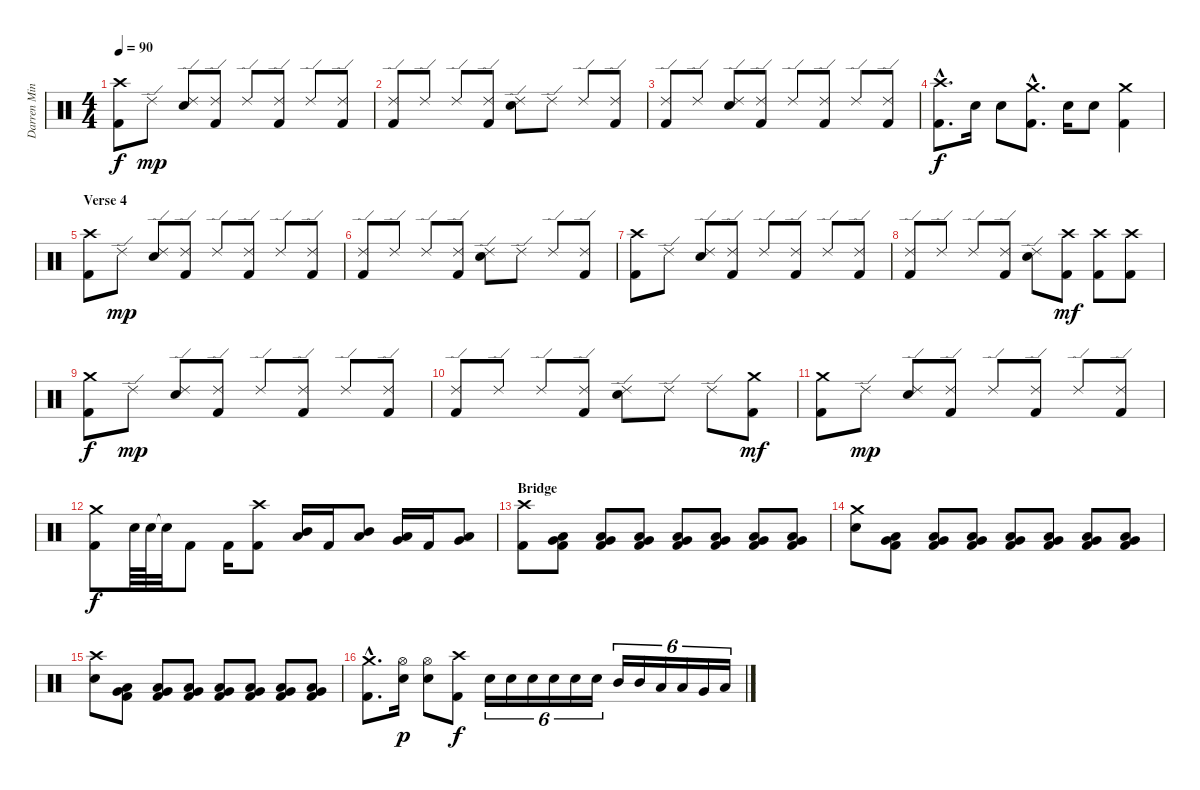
\track ("Darren Minter" "Darren Min") {instrument percussion}
\staff {score}
\articulation defaults
\ts (4 4)
\tempo 90
\clef neutral
\ks c
("Kick (hit) 2" "Crash high (hit)").8{dy f} "Ride (edge) 2".8{dy mp} ("Ride (edge) 2" "Snare (hit) 2").8 ("Kick (hit) 2" "Ride (edge) 2").8 "Ride (edge) 2".8 ("Kick (hit) 2" "Ride (edge) 2").8 "Ride (edge) 2".8 ("Kick (hit) 2" "Ride (edge) 2").8 |
("Kick (hit) 2" "Ride (edge) 2").8 "Ride (edge) 2".8 "Ride (edge) 2".8 ("Kick (hit) 2" "Ride (edge) 2").8 ("Ride (edge) 2" "Snare (hit) 2").8 "Ride (edge) 2".8 "Ride (edge) 2".8 ("Kick (hit) 2" "Ride (edge) 2").8 |
("Kick (hit) 2" "Ride (edge) 2").8 "Ride (edge) 2".8 ("Ride (edge) 2" "Snare (hit) 2").8 ("Kick (hit) 2" "Ride (edge) 2").8 "Ride (edge) 2".8 ("Kick (hit) 2" "Ride (edge) 2").8 "Ride (edge) 2".8 ("Kick (hit) 2" "Ride (edge) 2").8 |
("Kick (hit) 2"{hac} "Crash high (hit)"{hac}).8{d dy f} "Snare (hit) 2".16 "Snare (hit) 2".8 ("Kick (hit) 2"{hac} "Crash medium (hit)"{hac}).8{d} "Snare (hit) 2".16 "Snare (hit) 2".8 ("Kick (hit) 2" "Crash medium (hit)").4 |
\section ("" "Verse 4")
("Kick (hit) 2" "Crash high (hit)").8 "Ride (edge) 2".8{dy mp} ("Ride (edge) 2" "Snare (hit) 2").8 ("Kick (hit) 2" "Ride (edge) 2").8 "Ride (edge) 2".8 ("Kick (hit) 2" "Ride (edge) 2").8 "Ride (edge) 2".8 ("Kick (hit) 2" "Ride (edge) 2").8 |
("Kick (hit) 2" "Ride (edge) 2").8 "Ride (edge) 2".8 "Ride (edge) 2".8 ("Kick (hit) 2" "Ride (edge) 2").8 ("Ride (edge) 2" "Snare (hit) 2").8 "Ride (edge) 2".8 "Ride (edge) 2".8 ("Kick (hit) 2" "Ride (edge) 2").8 |
("Kick (hit) 2" "Crash high (hit)").8 "Ride (edge) 2".8 ("Ride (edge) 2" "Snare (hit) 2").8 ("Kick (hit) 2" "Ride (edge) 2").8 "Ride (edge) 2".8 ("Kick (hit) 2" "Ride (edge) 2").8 "Ride (edge) 2".8 ("Kick (hit) 2" "Ride (edge) 2").8 |
("Kick (hit) 2" "Ride (edge) 2").8 "Ride (edge) 2".8 "Ride (edge) 2".8 ("Kick (hit) 2" "Ride (edge) 2").8 ("Ride (edge) 2" "Snare (hit) 2").8 ("Kick (hit) 2" "Crash high (hit)").8{dy mf} ("Kick (hit) 2" "Crash high (hit)").8 ("Kick (hit) 2" "Crash high (hit)").8 |
("Kick (hit) 2" "Crash medium (hit)").8{dy f} "Ride (edge) 2".8{dy mp} ("Ride (edge) 2" "Snare (hit) 2").8 ("Kick (hit) 2" "Ride (edge) 2").8 "Ride (edge) 2".8 ("Kick (hit) 2" "Ride (edge) 2").8 "Ride (edge) 2".8 ("Kick (hit) 2" "Ride (edge) 2").8 |
("Kick (hit) 2" "Ride (edge) 2").8 "Ride (edge) 2".8 "Ride (edge) 2".8 ("Kick (hit) 2" "Ride (edge) 2").8 ("Ride (edge) 2" "Snare (hit) 2").8 "Ride (edge) 2".8 "Ride (edge) 2".8 ("Kick (hit) 2" "Crash medium (hit)").8{dy mf} |
("Kick (hit) 2" "Crash medium (hit)").8 "Ride (edge) 2".8{dy mp} ("Ride (edge) 2" "Snare (hit) 2").8 ("Kick (hit) 2" "Ride (edge) 2").8 "Ride (edge) 2".8 ("Kick (hit) 2" "Ride (edge) 2").8 "Ride (edge) 2".8 ("Kick (hit) 2" "Ride (edge) 2").8 |
("Kick (hit) 2" "Crash medium (hit)").8{dy f} "Snare (hit) 2".64 "Snare (hit) 2".64 "Snare (hit)"{t}.32 "Kick (hit) 2".8 "Kick (hit) 2".16 ("Kick (hit) 2" "Crash high (hit)").8 ("Mid Tom (hit)" "Low Tom (hit)").16 "Kick (hit) 2".16 ("Mid Tom (hit)" "Low Tom (hit)").8 ("Low Tom (hit)" "Very Low Tom (hit)").16 "Kick (hit) 2".16 ("Low Tom (hit)" "Very Low Tom (hit)").8 |
\section ("" "Bridge")
("Kick (hit) 2" "Crash high (hit)").8 ("Kick (hit) 2" "Low Tom (hit)" "Very Low Tom (hit)").8 ("Kick (hit) 2" "Low Tom (hit)" "Very Low Tom (hit)").8 ("Kick (hit) 2" "Low Tom (hit)" "Very Low Tom (hit)").8 ("Kick (hit) 2" "Low Tom (hit)" "Very Low Tom (hit)").8 ("Kick (hit) 2" "Low Tom (hit)" "Very Low Tom (hit)").8 ("Kick (hit) 2" "Low Tom (hit)" "Very Low Tom (hit)").8 ("Kick (hit) 2" "Low Tom (hit)" "Very Low Tom (hit)").8 |
("Crash medium (hit)" "Snare (hit) 2").8 ("Kick (hit) 2" "Low Tom (hit)" "Very Low Tom (hit)").8 ("Kick (hit) 2" "Low Tom (hit)" "Very Low Tom (hit)").8 ("Kick (hit) 2" "Low Tom (hit)" "Very Low Tom (hit)").8 ("Kick (hit) 2" "Low Tom (hit)" "Very Low Tom (hit)").8 ("Kick (hit) 2" "Low Tom (hit)" "Very Low Tom (hit)").8 ("Kick (hit) 2" "Low Tom (hit)" "Very Low Tom (hit)").8 ("Kick (hit) 2" "Low Tom (hit)" "Very Low Tom (hit)").8 |
("Crash high (hit)" "Snare (hit) 2").8 ("Kick (hit) 2" "Low Tom (hit)" "Very Low Tom (hit)").8 ("Kick (hit) 2" "Low Tom (hit)" "Very Low Tom (hit)").8 ("Kick (hit) 2" "Low Tom (hit)" "Very Low Tom (hit)").8 ("Kick (hit) 2" "Low Tom (hit)" "Very Low Tom (hit)").8 ("Kick (hit) 2" "Low Tom (hit)" "Very Low Tom (hit)").8 ("Kick (hit) 2" "Low Tom (hit)" "Very Low Tom (hit)").8 ("Kick (hit) 2" "Low Tom (hit)" "Very Low Tom (hit)").8 |
("Kick (hit) 2"{hac} "Crash medium (hit)"{hac}).8{d} ("Hi-Hat (open)" "Snare (hit) 2").16{dy p} ("Hi-Hat (open)" "Snare (hit) 2").8 ("Kick (hit) 2" "Crash high (hit)").8{dy f} "Snare (hit) 2".16{tu (6 4)} "Snare (hit) 2".16{tu (6 4)} "Snare (hit) 2".16{tu (6 4)} "Snare (hit) 2".16{tu (6 4)} "Snare (hit) 2".16{tu (6 4)} "Snare (hit) 2".16{tu (6 4)} "Mid Tom (hit)".16{tu (6 4)} "Mid Tom (hit)".16{tu (6 4)} "Low Tom (hit)".16{tu (6 4)} "Low Tom (hit)".16{tu (6 4)} "Very Low Tom (hit)".16{tu (6 4)} "Low Floor Tom (hit)".16{tu (6 4)}
